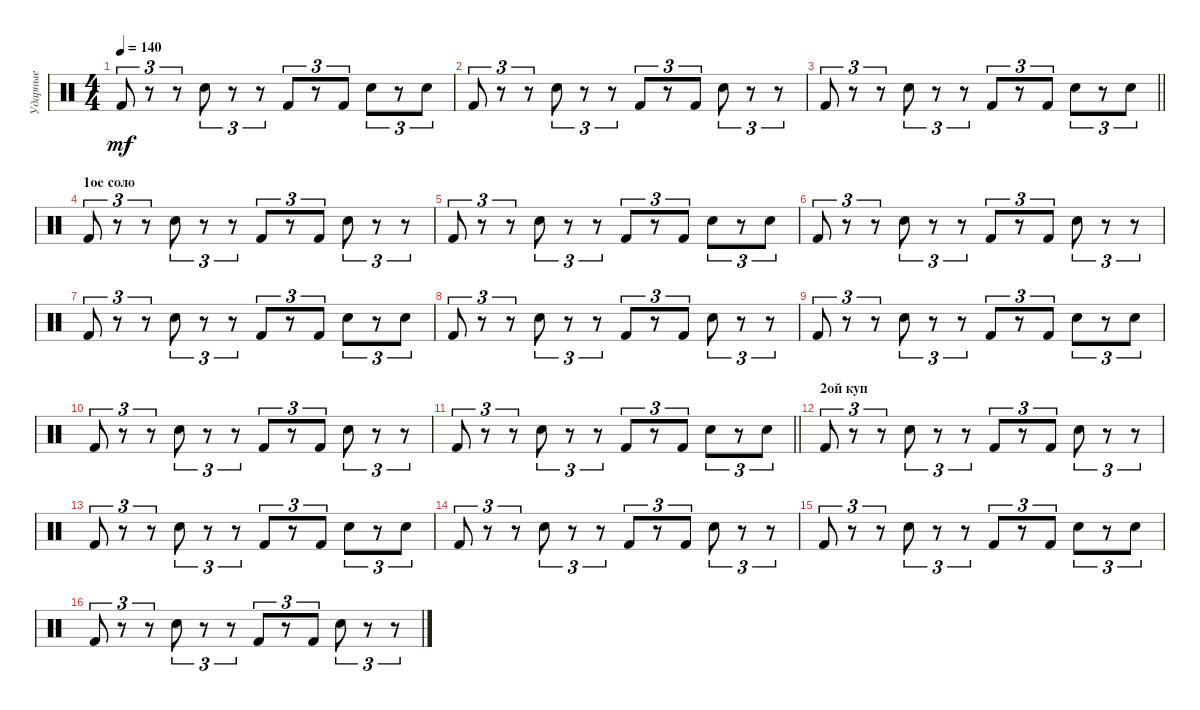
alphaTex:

\track ("Ударные" "Ударные") {instrument percussion}
\staff {score}
\articulation defaults
\ts (4 4)
\tempo 140
\clef neutral
\ks c "Kick (hit) 2".8{tu (3 2) dy mf}
r.8{tu (3 2)} r.8{tu (3 2)} "Electric Snare (hit)".8{tu (3 2)} r.8{tu (3 2)} r.8{tu (3 2)} "Kick (hit) 2".8{tu (3 2)} r.8{tu (3 2)} "Kick (hit) 2".8{tu (3 2)} "Electric Snare (hit)".8{tu (3 2)} r.8{tu (3 2)} "Electric Snare (hit)".8{tu (3 2)} |
"Kick (hit) 2".8{tu (3 2)} r.8{tu (3 2)} r.8{tu (3 2)} "Electric Snare (hit)".8{tu (3 2)} r.8{tu (3 2)} r.8{tu (3 2)} "Kick (hit) 2".8{tu (3 2)} r.8{tu (3 2)} "Kick (hit) 2".8{tu (3 2)} "Electric Snare (hit)".8{tu (3 2)} r.8{tu (3 2)} r.8{tu (3 2)} |
\barLineRight lightlight "Kick (hit) 2".8{tu (3 2)}
r.8{tu (3 2)} r.8{tu (3 2)} "Electric Snare (hit)".8{tu (3 2)} r.8{tu (3 2)} r.8{tu (3 2)} "Kick (hit) 2".8{tu (3 2)} r.8{tu (3 2)} "Kick (hit) 2".8{tu (3 2)} "Electric Snare (hit)".8{tu (3 2)} r.8{tu (3 2)} "Electric Snare (hit)".8{tu (3 2)} |
\section ("" "1ое соло")
"Kick (hit) 2".8{tu (3 2)} r.8{tu (3 2)} r.8{tu (3 2)} "Electric Snare (hit)".8{tu (3 2)} r.8{tu (3 2)} r.8{tu (3 2)} "Kick (hit) 2".8{tu (3 2)} r.8{tu (3 2)} "Kick (hit) 2".8{tu (3 2)} "Electric Snare (hit)".8{tu (3 2)} r.8{tu (3 2)} r.8{tu (3 2)} |
"Kick (hit) 2".8{tu (3 2)} r.8{tu (3 2)} r.8{tu (3 2)} "Electric Snare (hit)".8{tu (3 2)} r.8{tu (3 2)} r.8{tu (3 2)} "Kick (hit) 2".8{tu (3 2)} r.8{tu (3 2)} "Kick (hit) 2".8{tu (3 2)} "Electric Snare (hit)".8{tu (3 2)} r.8{tu (3 2)} "Electric Snare (hit)".8{tu (3 2)} |
"Kick (hit) 2".8{tu (3 2)} r.8{tu (3 2)} r.8{tu (3 2)} "Electric Snare (hit)".8{tu (3 2)} r.8{tu (3 2)} r.8{tu (3 2)} "Kick (hit) 2".8{tu (3 2)} r.8{tu (3 2)} "Kick (hit) 2".8{tu (3 2)} "Electric Snare (hit)".8{tu (3 2)} r.8{tu (3 2)} r.8{tu (3 2)} |
"Kick (hit) 2".8{tu (3 2)} r.8{tu (3 2)} r.8{tu (3 2)} "Electric Snare (hit)".8{tu (3 2)} r.8{tu (3 2)} r.8{tu (3 2)} "Kick (hit) 2".8{tu (3 2)} r.8{tu (3 2)} "Kick (hit) 2".8{tu (3 2)} "Electric Snare (hit)".8{tu (3 2)} r.8{tu (3 2)} "Electric Snare (hit)".8{tu (3 2)} |
"Kick (hit) 2".8{tu (3 2)} r.8{tu (3 2)} r.8{tu (3 2)} "Electric Snare (hit)".8{tu (3 2)} r.8{tu (3 2)} r.8{tu (3 2)} "Kick (hit) 2".8{tu (3 2)} r.8{tu (3 2)} "Kick (hit) 2".8{tu (3 2)} "Electric Snare (hit)".8{tu (3 2)} r.8{tu (3 2)} r.8{tu (3 2)} |
"Kick (hit) 2".8{tu (3 2)} r.8{tu (3 2)} r.8{tu (3 2)} "Electric Snare (hit)".8{tu (3 2)} r.8{tu (3 2)} r.8{tu (3 2)} "Kick (hit) 2".8{tu (3 2)} r.8{tu (3 2)} "Kick (hit) 2".8{tu (3 2)} "Electric Snare (hit)".8{tu (3 2)} r.8{tu (3 2)} "Electric Snare (hit)".8{tu (3 2)} |
"Kick (hit) 2".8{tu (3 2)} r.8{tu (3 2)} r.8{tu (3 2)} "Electric Snare (hit)".8{tu (3 2)} r.8{tu (3 2)} r.8{tu (3 2)} "Kick (hit) 2".8{tu (3 2)} r.8{tu (3 2)} "Kick (hit) 2".8{tu (3 2)} "Electric Snare (hit)".8{tu (3 2)} r.8{tu (3 2)} r.8{tu (3 2)} |
\barLineRight lightlight "Kick (hit) 2".8{tu (3 2)}
r.8{tu (3 2)} r.8{tu (3 2)} "Electric Snare (hit)".8{tu (3 2)} r.8{tu (3 2)} r.8{tu (3 2)} "Kick (hit) 2".8{tu (3 2)} r.8{tu (3 2)} "Kick (hit) 2".8{tu (3 2)} "Electric Snare (hit)".8{tu (3 2)} r.8{tu (3 2)} "Electric Snare (hit)".8{tu (3 2)} |
\section ("" "2ой куп")
"Kick (hit) 2".8{tu (3 2)} r.8{tu (3 2)} r.8{tu (3 2)} "Electric Snare (hit)".8{tu (3 2)} r.8{tu (3 2)} r.8{tu (3 2)} "Kick (hit) 2".8{tu (3 2)} r.8{tu (3 2)} "Kick (hit) 2".8{tu (3 2)} "Electric Snare (hit)".8{tu (3 2)} r.8{tu (3 2)} r.8{tu (3 2)} |
"Kick (hit) 2".8{tu (3 2)} r.8{tu (3 2)} r.8{tu (3 2)} "Electric Snare (hit)".8{tu (3 2)} r.8{tu (3 2)} r.8{tu (3 2)} "Kick (hit) 2".8{tu (3 2)} r.8{tu (3 2)} "Kick (hit) 2".8{tu (3 2)} "Electric Snare (hit)".8{tu (3 2)} r.8{tu (3 2)} "Electric Snare (hit)".8{tu (3 2)} |
"Kick (hit) 2".8{tu (3 2)} r.8{tu (3 2)} r.8{tu (3 2)} "Electric Snare (hit)".8{tu (3 2)} r.8{tu (3 2)} r.8{tu (3 2)} "Kick (hit) 2".8{tu (3 2)} r.8{tu (3 2)} "Kick (hit) 2".8{tu (3 2)} "Electric Snare (hit)".8{tu (3 2)} r.8{tu (3 2)} r.8{tu (3 2)} |
"Kick (hit) 2".8{tu (3 2)} r.8{tu (3 2)} r.8{tu (3 2)} "Electric Snare (hit)".8{tu (3 2)} r.8{tu (3 2)} r.8{tu (3 2)} "Kick (hit) 2".8{tu (3 2)} r.8{tu (3 2)} "Kick (hit) 2".8{tu (3 2)} "Electric Snare (hit)".8{tu (3 2)} r.8{tu (3 2)} "Electric Snare (hit)".8{tu (3 2)} |
"Kick (hit) 2".8{tu (3 2)} r.8{tu (3 2)} r.8{tu (3 2)} "Electric Snare (hit)".8{tu (3 2)} r.8{tu (3 2)} r.8{tu (3 2)} "Kick (hit) 2".8{tu (3 2)} r.8{tu (3 2)} "Kick (hit) 2".8{tu (3 2)} "Electric Snare (hit)".8{tu (3 2)} r.8{tu (3 2)} r.8{tu (3 2)}
